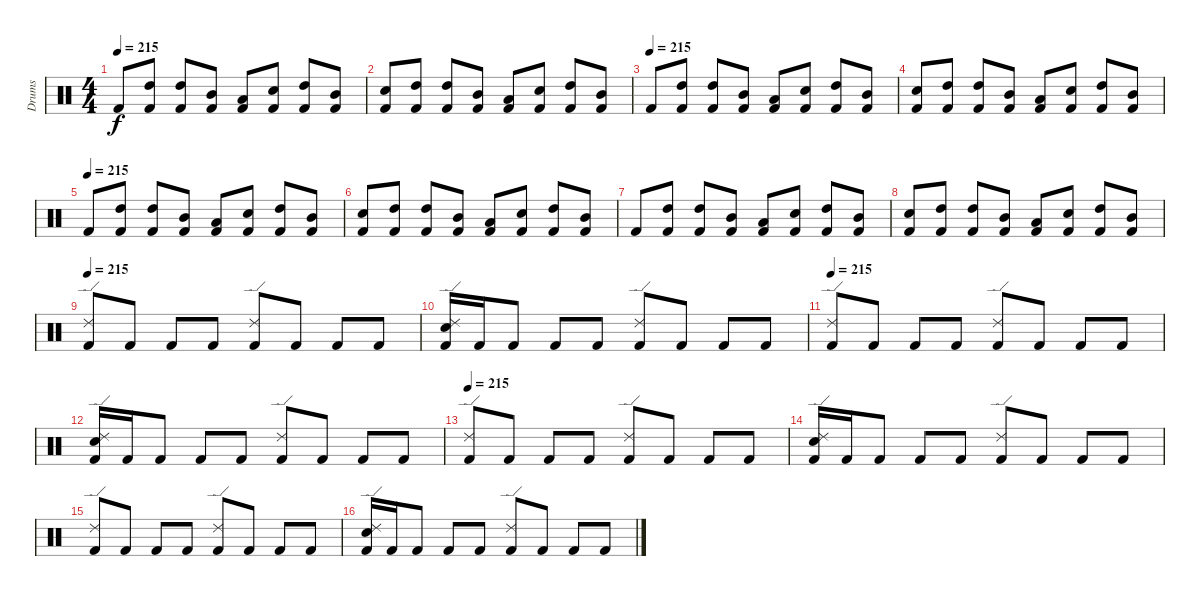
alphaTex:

\track ("Drums" "Drums") {instrument percussion}
\staff {score}
\articulation defaults
\ts (4 4)
\tempo 215
\clef neutral
\ks c "Kick (hit) 2".8{dy f}
("High Tom (hit)" "Kick (hit) 2").8 ("High Tom (hit)" "Kick (hit) 2").8 ("Mid Tom (hit)" "Kick (hit) 2").8 ("Low Tom (hit)" "Kick (hit) 2").8 ("Electric Snare (hit)" "Kick (hit) 2").8 ("High Tom (hit)" "Kick (hit) 2").8 ("Mid Tom (hit)" "Kick (hit) 2").8 |
("Electric Snare (hit)" "Kick (hit) 2").8 ("High Tom (hit)" "Kick (hit) 2").8 ("High Tom (hit)" "Kick (hit) 2").8 ("Mid Tom (hit)" "Kick (hit) 2").8 ("Low Tom (hit)" "Kick (hit) 2").8 ("Electric Snare (hit)" "Kick (hit) 2").8 ("High Tom (hit)" "Kick (hit) 2").8 ("Mid Tom (hit)" "Kick (hit) 2").8 |
\tempo (215)
"Kick (hit) 2".8 ("High Tom (hit)" "Kick (hit) 2").8 ("High Tom (hit)" "Kick (hit) 2").8 ("Mid Tom (hit)" "Kick (hit) 2").8 ("Low Tom (hit)" "Kick (hit) 2").8 ("Electric Snare (hit)" "Kick (hit) 2").8 ("High Tom (hit)" "Kick (hit) 2").8 ("Mid Tom (hit)" "Kick (hit) 2").8 |
("Electric Snare (hit)" "Kick (hit) 2").8 ("High Tom (hit)" "Kick (hit) 2").8 ("High Tom (hit)" "Kick (hit) 2").8 ("Mid Tom (hit)" "Kick (hit) 2").8 ("Low Tom (hit)" "Kick (hit) 2").8 ("Electric Snare (hit)" "Kick (hit) 2").8 ("High Tom (hit)" "Kick (hit) 2").8 ("Mid Tom (hit)" "Kick (hit) 2").8 |
\tempo (215)
"Kick (hit) 2".8 ("High Tom (hit)" "Kick (hit) 2").8 ("High Tom (hit)" "Kick (hit) 2").8 ("Mid Tom (hit)" "Kick (hit) 2").8 ("Low Tom (hit)" "Kick (hit) 2").8 ("Electric Snare (hit)" "Kick (hit) 2").8 ("High Tom (hit)" "Kick (hit) 2").8 ("Mid Tom (hit)" "Kick (hit) 2").8 |
("Electric Snare (hit)" "Kick (hit) 2").8 ("High Tom (hit)" "Kick (hit) 2").8 ("High Tom (hit)" "Kick (hit) 2").8 ("Mid Tom (hit)" "Kick (hit) 2").8 ("Low Tom (hit)" "Kick (hit) 2").8 ("Electric Snare (hit)" "Kick (hit) 2").8 ("High Tom (hit)" "Kick (hit) 2").8 ("Mid Tom (hit)" "Kick (hit) 2").8 |
"Kick (hit) 2".8 ("High Tom (hit)" "Kick (hit) 2").8 ("High Tom (hit)" "Kick (hit) 2").8 ("Mid Tom (hit)" "Kick (hit) 2").8 ("Low Tom (hit)" "Kick (hit) 2").8 ("Electric Snare (hit)" "Kick (hit) 2").8 ("High Tom (hit)" "Kick (hit) 2").8 ("Mid Tom (hit)" "Kick (hit) 2").8 |
("Electric Snare (hit)" "Kick (hit) 2").8 ("High Tom (hit)" "Kick (hit) 2").8 ("High Tom (hit)" "Kick (hit) 2").8 ("Mid Tom (hit)" "Kick (hit) 2").8 ("Low Tom (hit)" "Kick (hit) 2").8 ("Electric Snare (hit)" "Kick (hit) 2").8 ("High Tom (hit)" "Kick (hit) 2").8 ("Mid Tom (hit)" "Kick (hit) 2").8 |
\tempo 215
("Ride (edge) 2" "Kick (hit) 2").8 "Kick (hit) 2".8 "Kick (hit) 2".8 "Kick (hit) 2".8 ("Ride (edge) 2" "Kick (hit) 2").8 "Kick (hit) 2".8 "Kick (hit) 2".8 "Kick (hit) 2".8 |
("Ride (edge) 2" "Electric Snare (hit)" "Kick (hit) 2").16 "Kick (hit) 2".16 "Kick (hit) 2".8 "Kick (hit) 2".8 "Kick (hit) 2".8 ("Ride (edge) 2" "Kick (hit) 2").8 "Kick (hit) 2".8 "Kick (hit) 2".8 "Kick (hit) 2".8 |
\tempo 215
("Ride (edge) 2" "Kick (hit) 2").8 "Kick (hit) 2".8 "Kick (hit) 2".8 "Kick (hit) 2".8 ("Ride (edge) 2" "Kick (hit) 2").8 "Kick (hit) 2".8 "Kick (hit) 2".8 "Kick (hit) 2".8 |
("Ride (edge) 2" "Electric Snare (hit)" "Kick (hit) 2").16 "Kick (hit) 2".16 "Kick (hit) 2".8 "Kick (hit) 2".8 "Kick (hit) 2".8 ("Ride (edge) 2" "Kick (hit) 2").8 "Kick (hit) 2".8 "Kick (hit) 2".8 "Kick (hit) 2".8 |
\tempo 215
("Ride (edge) 2" "Kick (hit) 2").8 "Kick (hit) 2".8 "Kick (hit) 2".8 "Kick (hit) 2".8 ("Ride (edge) 2" "Kick (hit) 2").8 "Kick (hit) 2".8 "Kick (hit) 2".8 "Kick (hit) 2".8 |
("Ride (edge) 2" "Electric Snare (hit)" "Kick (hit) 2").16 "Kick (hit) 2".16 "Kick (hit) 2".8 "Kick (hit) 2".8 "Kick (hit) 2".8 ("Ride (edge) 2" "Kick (hit) 2").8 "Kick (hit) 2".8 "Kick (hit) 2".8 "Kick (hit) 2".8 |
("Ride (edge) 2" "Kick (hit) 2").8 "Kick (hit) 2".8 "Kick (hit) 2".8 "Kick (hit) 2".8 ("Ride (edge) 2" "Kick (hit) 2").8 "Kick (hit) 2".8 "Kick (hit) 2".8 "Kick (hit) 2".8 |
("Ride (edge) 2" "Electric Snare (hit)" "Kick (hit) 2").16 "Kick (hit) 2".16 "Kick (hit) 2".8 "Kick (hit) 2".8 "Kick (hit) 2".8 ("Ride (edge) 2" "Kick (hit) 2").8 "Kick (hit) 2".8 "Kick (hit) 2".8 "Kick (hit) 2".8
